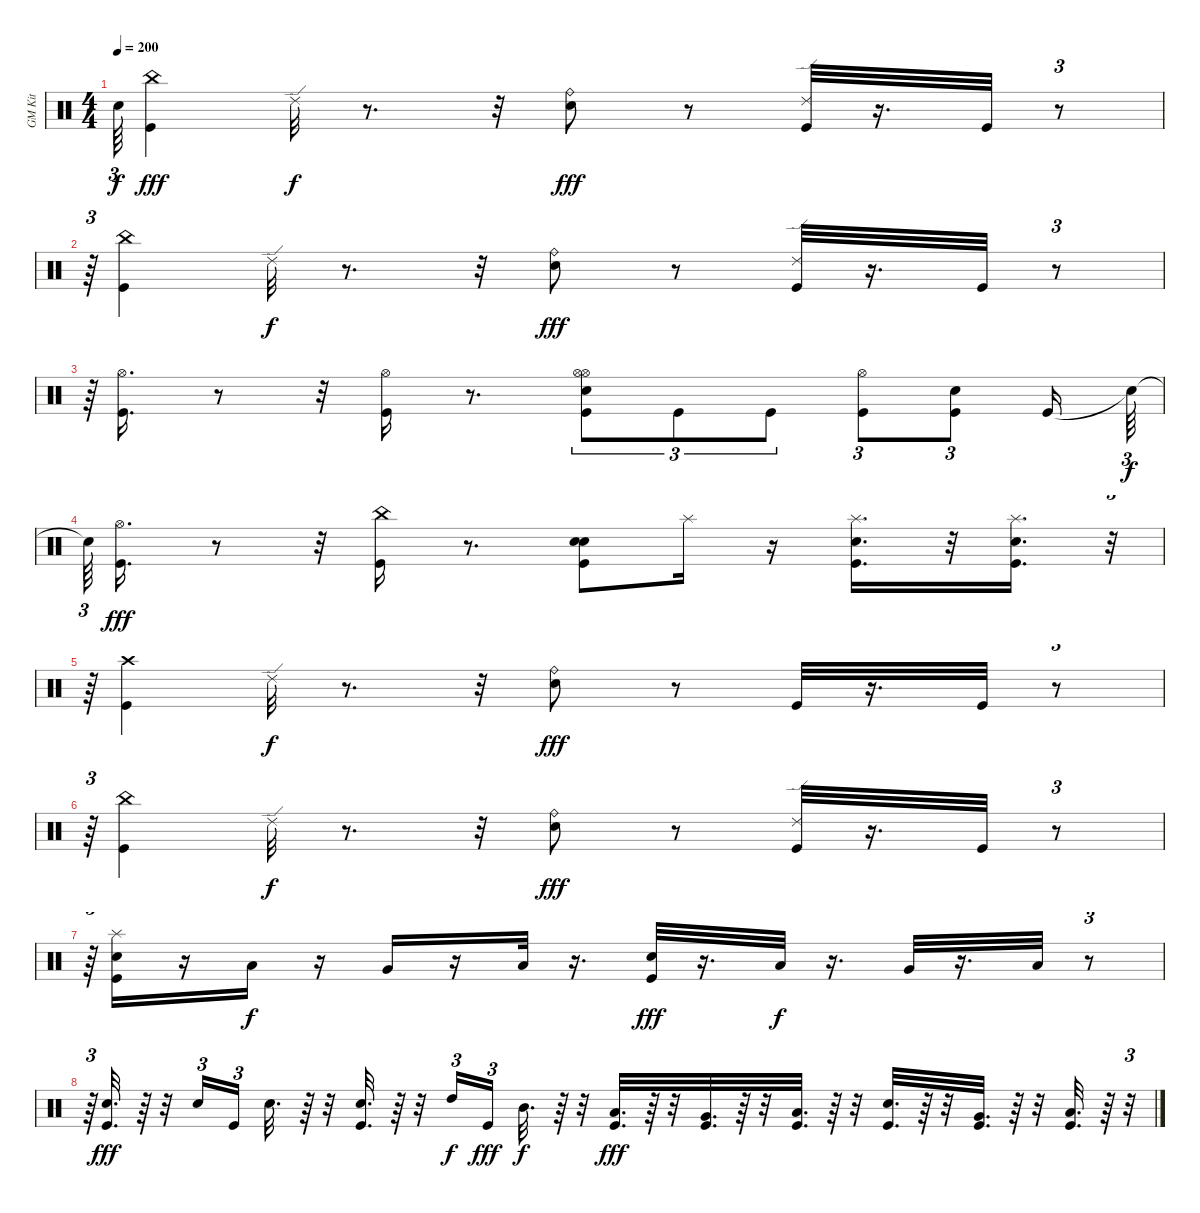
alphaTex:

\track ("GM Kit" "GM Kit") {instrument percussion}
\staff {score}
\articulation defaults
\ts (4 4)
\tempo 200
\clef neutral
\ks c "Snare (hit)"{t}.64{tu (3 2) dy f}
("Kick (hit)" "China (hit)").4{dy fff} "Ride (edge) 2".32{dy f} r.8{d} r.32 ("Snare (hit) 2" "Ride (bell)").8{dy fff} r.8 ("Kick (hit)" "Ride (edge) 2").32 r.16{d} "Kick (hit)".32 r.8{tu (3 2)} |
r.64{tu (3 2)} ("Kick (hit)" "China (hit)").4 "Ride (edge) 2".32{dy f} r.8{d} r.32 ("Snare (hit) 2" "Ride (bell)").8{dy fff} r.8 ("Kick (hit)" "Ride (edge) 2").32 r.16{d} "Kick (hit)".32 r.8{tu (3 2)} |
r.64{tu (3 2)} ("Kick (hit)" "Hi-Hat (open)").16{d} r.8 r.32 ("Kick (hit)" "Hi-Hat (open)").16 r.8{d} ("Kick (hit)" "Snare (hit) 2" "Hi-Hat (open)" "Hi-Hat (open)").8{tu (3 2)} "Kick (hit)".8{tu (3 2)} "Kick (hit)".8{tu (3 2)} ("Kick (hit)" "Hi-Hat (open)").8{tu (3 2)} ("Kick (hit)" "Snare (hit) 2").8{tu (3 2)} "Kick (hit)".16 "Snare (hit)"{t}.64{tu (3 2) dy f} |
"Snare (hit)"{t}.64{tu (3 2)} ("Kick (hit)" "Hi-Hat (open)").16{d dy fff} r.8 r.32 ("Kick (hit)" "China (hit)").16 r.8{d} ("Kick (hit)" "Snare (hit) 2" "Snare (hit) 2").8 "Splash (hit)".16 r.16 ("Kick (hit)" "Snare (hit) 2" "Splash (hit)").16{d} r.32 ("Kick (hit)" "Snare (hit) 2" "Splash (hit)").16{d} r.32{tu (3 2)} |
r.64{tu (3 2)} ("Kick (hit)" "Crash high (hit)").4 "Ride (edge) 2".32{dy f} r.8{d} r.32 ("Snare (hit) 2" "Ride (bell)").8{dy fff} r.8 "Kick (hit)".32 r.16{d} "Kick (hit)".32 r.8{tu (3 2)} |
r.64{tu (3 2)} ("Kick (hit)" "China (hit)").4 "Ride (edge) 2".32{dy f} r.8{d} r.32 ("Snare (hit) 2" "Ride (bell)").8{dy fff} r.8 ("Kick (hit)" "Ride (edge) 2").32 r.16{d} "Kick (hit)".32 r.8{tu (3 2)} |
r.64{tu (3 2)} ("Kick (hit)" "Snare (hit) 2" "Splash (hit)").16 r.16 "Low Tom (hit)".16{dy f} r.16 "Very Low Tom (hit)".16 r.16 "Low Floor Tom (hit)".32 r.16{d} ("Kick (hit)" "Snare (hit) 2").32{dy fff} r.16{d} "Low Tom (hit)".32{dy f} r.16{d} "Very Low Tom (hit)".32 r.16{d} "Low Floor Tom (hit)".32 r.8{tu (3 2)} |
r.64{tu (3 2)} ("Kick (hit)" "Snare (hit) 2").32{d dy fff} r.64 r.32 "Snare (hit) 2".16{tu (3 2)} "Kick (hit)".16{tu (3 2) beam splitsecondary} "Snare (hit) 2".32{d} r.64 r.32 ("Kick (hit)" "Snare (hit) 2").32{d} r.64 r.32 "High Tom (hit)".16{tu (3 2) dy f} "Kick (hit)".16{tu (3 2) dy fff beam splitsecondary} "Mid Tom (hit)".32{d dy f} r.64 r.32 ("Kick (hit)" "Low Tom (hit)").32{d dy fff} r.64 r.32 ("Kick (hit)" "Very Low Tom (hit)").32{d} r.64 r.32 ("Kick (hit)" "Low Tom (hit)").32{d} r.64 r.32 ("Kick (hit)" "Snare (hit) 2").32{d} r.64 r.32 ("Kick (hit)" "Very Low Tom (hit)").32{d} r.64 r.32 ("Kick (hit)" "Low Floor Tom (hit)").32{d} r.64 r.32{tu (3 2)}
